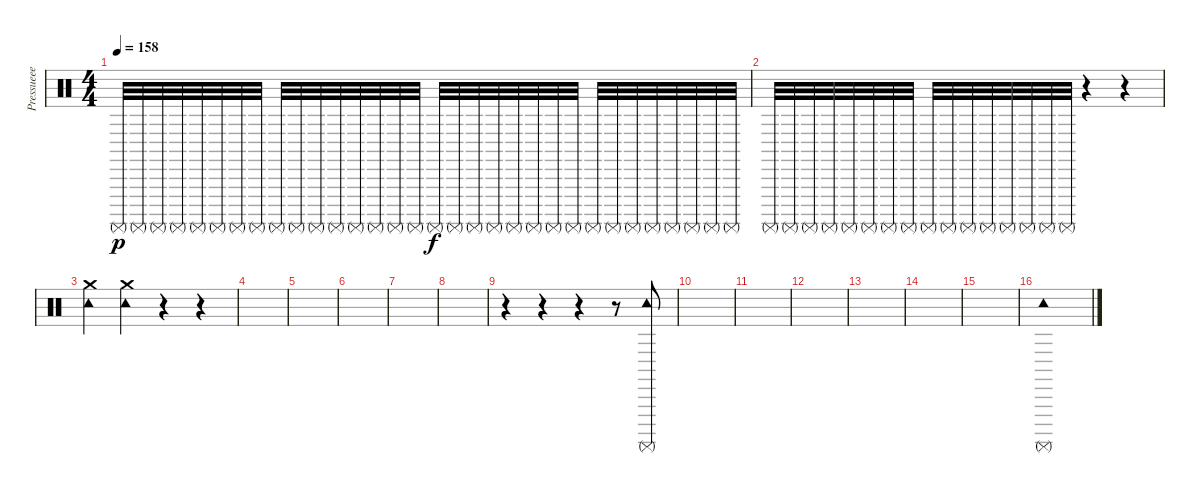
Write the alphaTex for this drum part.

\track ("Pressueee " "Pressueee ") {instrument percussion}
\staff {score}
\articulation defaults
\ts (4 4)
\tempo 158
\clef neutral
\ks c "Surdo (mute)".32{dy p} "Surdo (mute)".32 "Surdo (mute)".32 "Surdo (mute)".32 "Surdo (mute)".32 "Surdo (mute)".32 "Surdo (mute)".32 "Surdo (mute)".32 "Surdo (mute)".32 "Surdo (mute)".32 "Surdo (mute)".32 "Surdo (mute)".32 "Surdo (mute)".32 "Surdo (mute)".32 "Surdo (mute)".32 "Surdo (mute)".32 "Surdo (mute)".32{dy f} "Surdo (mute)".32 "Surdo (mute)".32 "Surdo (mute)".32 "Surdo (mute)".32 "Surdo (mute)".32 "Surdo (mute)".32 "Surdo (mute)".32 "Surdo (mute)".32 "Surdo (mute)".32 "Surdo (mute)".32 "Surdo (mute)".32 "Surdo (mute)".32 "Surdo (mute)".32 "Surdo (mute)".32 "Surdo (mute)".32
|
"Surdo (mute)".32 "Surdo (mute)".32 "Surdo (mute)".32 "Surdo (mute)".32 "Surdo (mute)".32 "Surdo (mute)".32 "Surdo (mute)".32 "Surdo (mute)".32 "Surdo (mute)".32 "Surdo (mute)".32 "Surdo (mute)".32 "Surdo (mute)".32 "Surdo (mute)".32 "Surdo (mute)".32 "Surdo (mute)".32 "Surdo (mute)".32 r.4 r.4 |
("Tambourine (hit)" "Crash medium (hit)").4 ("Tambourine (hit)" "Crash medium (hit)").4 r.4 r.4 |
|
|
|
|
|
r.4 r.4 r.4 r.8 ("Tambourine (hit)" "Surdo (mute)").8 |
|
|
|
|
|
|
("Tambourine (hit)" "Surdo (mute)").1
